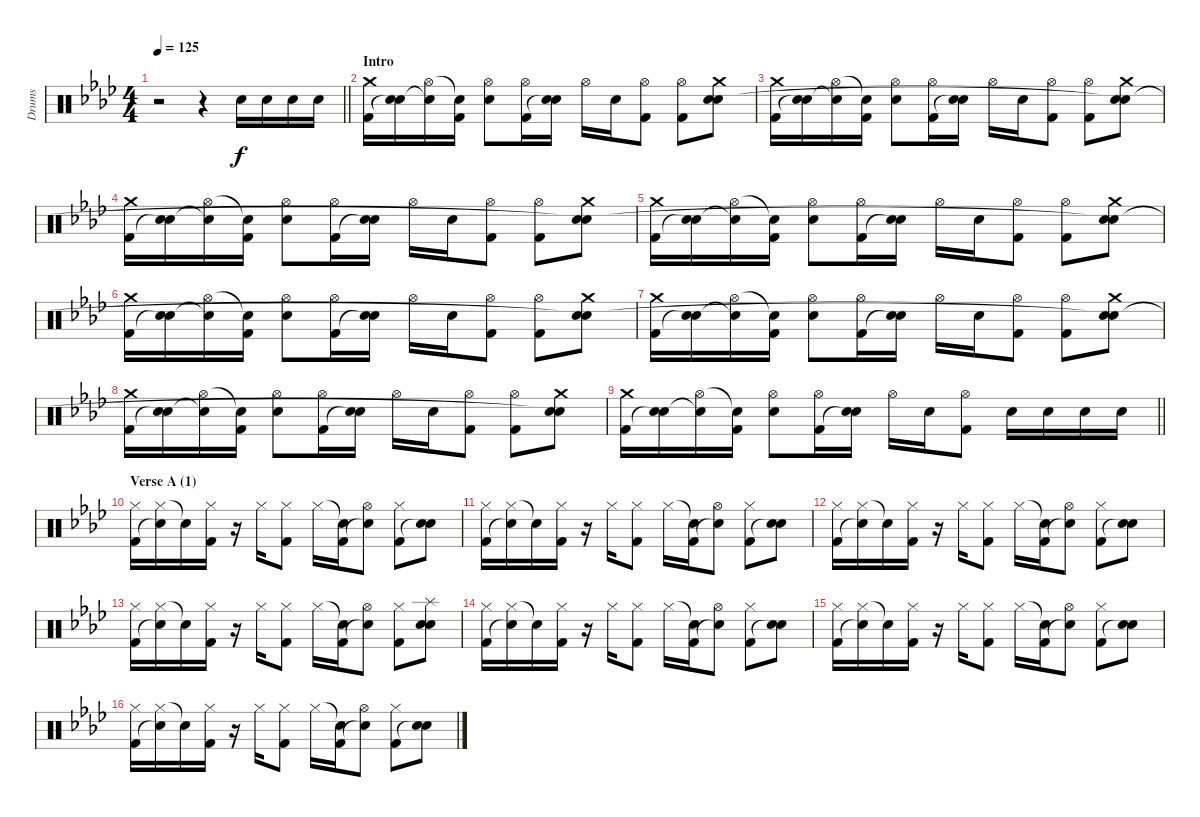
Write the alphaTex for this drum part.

\track ("Drums" "Drums") {instrument percussion}
\staff {score}
\articulation defaults
\ts (4 4)
\tempo 125
\clef neutral
\barLineRight lightlight
\ks ab
r.2{dy f} r.4 "Electric Snare (hit)".16 "Electric Snare (hit)".16 "Electric Snare (hit)".16 "Electric Snare (hit)".16 |
\section ("" "Intro")
("Crash medium (hit)" "Kick (hit) 2").16 ("Electric Snare (hit)" "Snare (hit)"{t}).16 ("Hi-Hat (open)" "Snare (hit)"{t}).16 ("Snare (hit)"{t} "Kick (hit) 2").16 ("Hi-Hat (open)" "Electric Snare (hit)").8 ("Hi-Hat (open)" "Kick (hit) 2").16 ("Electric Snare (hit)" "Snare (hit)"{t}).16 "Hi-Hat (open)".16 "Electric Snare (hit)".16 ("Hi-Hat (open)" "Kick (hit) 2").8 ("Hi-Hat (open)" "Kick (hit) 2").8 ("Crash medium (hit)" "Electric Snare (hit)" "Snare (hit)").8 |
("Crash medium (hit)" "Kick (hit) 2").16 ("Electric Snare (hit)" "Snare (hit)"{t}).16 ("Hi-Hat (open)" "Snare (hit)"{t}).16 ("Snare (hit)"{t} "Kick (hit) 2").16 ("Hi-Hat (open)" "Electric Snare (hit)").8 ("Hi-Hat (open)" "Kick (hit) 2").16 ("Electric Snare (hit)" "Snare (hit)"{t}).16 "Hi-Hat (open)".16 "Electric Snare (hit)".16 ("Hi-Hat (open)" "Kick (hit) 2").8 ("Hi-Hat (open)" "Kick (hit) 2").8 ("Crash medium (hit)" "Electric Snare (hit)" "Snare (hit)"{t}).8 |
("Crash medium (hit)" "Kick (hit) 2").16 ("Electric Snare (hit)" "Snare (hit)"{t}).16 ("Hi-Hat (open)" "Snare (hit)"{t}).16 ("Snare (hit)"{t} "Kick (hit) 2").16 ("Hi-Hat (open)" "Electric Snare (hit)").8 ("Hi-Hat (open)" "Kick (hit) 2").16 ("Electric Snare (hit)" "Snare (hit)"{t}).16 "Hi-Hat (open)".16 "Electric Snare (hit)".16 ("Hi-Hat (open)" "Kick (hit) 2").8 ("Hi-Hat (open)" "Kick (hit) 2").8 ("Crash medium (hit)" "Electric Snare (hit)" "Snare (hit)"{t}).8 |
("Crash medium (hit)" "Kick (hit) 2").16 ("Electric Snare (hit)" "Snare (hit)"{t}).16 ("Hi-Hat (open)" "Snare (hit)"{t}).16 ("Snare (hit)"{t} "Kick (hit) 2").16 ("Hi-Hat (open)" "Electric Snare (hit)").8 ("Hi-Hat (open)" "Kick (hit) 2").16 ("Electric Snare (hit)" "Snare (hit)"{t}).16 "Hi-Hat (open)".16 "Electric Snare (hit)".16 ("Hi-Hat (open)" "Kick (hit) 2").8 ("Hi-Hat (open)" "Kick (hit) 2").8 ("Crash medium (hit)" "Electric Snare (hit)" "Snare (hit)"{t}).8 |
("Crash medium (hit)" "Kick (hit) 2").16 ("Electric Snare (hit)" "Snare (hit)"{t}).16 ("Hi-Hat (open)" "Snare (hit)"{t}).16 ("Snare (hit)"{t} "Kick (hit) 2").16 ("Hi-Hat (open)" "Electric Snare (hit)").8 ("Hi-Hat (open)" "Kick (hit) 2").16 ("Electric Snare (hit)" "Snare (hit)"{t}).16 "Hi-Hat (open)".16 "Electric Snare (hit)".16 ("Hi-Hat (open)" "Kick (hit) 2").8 ("Hi-Hat (open)" "Kick (hit) 2").8 ("Crash medium (hit)" "Electric Snare (hit)" "Snare (hit)"{t}).8 |
("Crash medium (hit)" "Kick (hit) 2").16 ("Electric Snare (hit)" "Snare (hit)"{t}).16 ("Hi-Hat (open)" "Snare (hit)"{t}).16 ("Snare (hit)"{t} "Kick (hit) 2").16 ("Hi-Hat (open)" "Electric Snare (hit)").8 ("Hi-Hat (open)" "Kick (hit) 2").16 ("Electric Snare (hit)" "Snare (hit)"{t}).16 "Hi-Hat (open)".16 "Electric Snare (hit)".16 ("Hi-Hat (open)" "Kick (hit) 2").8 ("Hi-Hat (open)" "Kick (hit) 2").8 ("Crash medium (hit)" "Electric Snare (hit)" "Snare (hit)"{t}).8 |
("Crash medium (hit)" "Kick (hit) 2").16 ("Electric Snare (hit)" "Snare (hit)"{t}).16 ("Hi-Hat (open)" "Snare (hit)"{t}).16 ("Snare (hit)"{t} "Kick (hit) 2").16 ("Hi-Hat (open)" "Electric Snare (hit)").8 ("Hi-Hat (open)" "Kick (hit) 2").16 ("Electric Snare (hit)" "Snare (hit)"{t}).16 "Hi-Hat (open)".16 "Electric Snare (hit)".16 ("Hi-Hat (open)" "Kick (hit) 2").8 ("Hi-Hat (open)" "Kick (hit) 2").8 ("Crash medium (hit)" "Electric Snare (hit)" "Snare (hit)"{t}).8 |
\barLineRight lightlight
("Crash medium (hit)" "Kick (hit) 2").16 ("Electric Snare (hit)" "Snare (hit)"{t}).16 ("Hi-Hat (open)" "Snare (hit)"{t}).16 ("Snare (hit)"{t} "Kick (hit) 2").16 ("Hi-Hat (open)" "Electric Snare (hit)").8 ("Hi-Hat (open)" "Kick (hit) 2").16 ("Electric Snare (hit)" "Snare (hit)"{t}).16 "Hi-Hat (open)".16 "Electric Snare (hit)".16 ("Hi-Hat (open)" "Kick (hit) 2").8 "Electric Snare (hit)".16 "Electric Snare (hit)".16 "Electric Snare (hit)".16 "Electric Snare (hit)".16 |
\section ("" "Verse A (1)")
("Hi-Hat (closed)" "Kick (hit) 2").16 ("Hi-Hat (closed)" "Snare (hit)"{t}).16 "Snare (hit)"{t}.16 ("Hi-Hat (closed)" "Kick (hit) 2").16 r.16 "Hi-Hat (closed)".16 ("Hi-Hat (closed)" "Kick (hit) 2").8 "Hi-Hat (closed)".16 ("Snare (hit)"{t} "Kick (hit) 2").16 ("Hi-Hat (open)" "Snare (hit)"{t}).8 ("Hi-Hat (closed)" "Kick (hit) 2").8 ("Electric Snare (hit)" "Snare (hit)"{t}).8 |
("Hi-Hat (closed)" "Kick (hit) 2").16 ("Hi-Hat (closed)" "Snare (hit)"{t}).16 "Snare (hit)"{t}.16 ("Hi-Hat (closed)" "Kick (hit) 2").16 r.16 "Hi-Hat (closed)".16 ("Hi-Hat (closed)" "Kick (hit) 2").8 "Hi-Hat (closed)".16 ("Snare (hit)"{t} "Kick (hit) 2").16 ("Hi-Hat (open)" "Snare (hit)"{t}).8 ("Hi-Hat (closed)" "Kick (hit) 2").8 ("Electric Snare (hit)" "Snare (hit)"{t}).8 |
("Hi-Hat (closed)" "Kick (hit) 2").16 ("Hi-Hat (closed)" "Snare (hit)"{t}).16 "Snare (hit)"{t}.16 ("Hi-Hat (closed)" "Kick (hit) 2").16 r.16 "Hi-Hat (closed)".16 ("Hi-Hat (closed)" "Kick (hit) 2").8 "Hi-Hat (closed)".16 ("Snare (hit)"{t} "Kick (hit) 2").16 ("Hi-Hat (open)" "Snare (hit)"{t}).8 ("Hi-Hat (closed)" "Kick (hit) 2").8 ("Electric Snare (hit)" "Snare (hit)"{t}).8 |
("Hi-Hat (closed)" "Kick (hit) 2").16 ("Hi-Hat (closed)" "Snare (hit)"{t}).16 "Snare (hit)"{t}.16 ("Hi-Hat (closed)" "Kick (hit) 2").16 r.16 "Hi-Hat (closed)".16 ("Hi-Hat (closed)" "Kick (hit) 2").8 "Hi-Hat (closed)".16 ("Snare (hit)"{t} "Kick (hit) 2").16 ("Hi-Hat (open)" "Snare (hit)"{t}).8 ("Hi-Hat (closed)" "Kick (hit) 2").8 ("Splash (hit)" "Electric Snare (hit)" "Snare (hit)").8 |
("Hi-Hat (closed)" "Kick (hit) 2").16 ("Hi-Hat (closed)" "Snare (hit)"{t}).16 "Snare (hit)"{t}.16 ("Hi-Hat (closed)" "Kick (hit) 2").16 r.16 "Hi-Hat (closed)".16 ("Hi-Hat (closed)" "Kick (hit) 2").8 "Hi-Hat (closed)".16 ("Snare (hit)"{t} "Kick (hit) 2").16 ("Hi-Hat (open)" "Snare (hit)"{t}).8 ("Hi-Hat (closed)" "Kick (hit) 2").8 ("Electric Snare (hit)" "Snare (hit)"{t}).8 |
("Hi-Hat (closed)" "Kick (hit) 2").16 ("Hi-Hat (closed)" "Snare (hit)"{t}).16 "Snare (hit)"{t}.16 ("Hi-Hat (closed)" "Kick (hit) 2").16 r.16 "Hi-Hat (closed)".16 ("Hi-Hat (closed)" "Kick (hit) 2").8 "Hi-Hat (closed)".16 ("Snare (hit)"{t} "Kick (hit) 2").16 ("Hi-Hat (open)" "Snare (hit)"{t}).8 ("Hi-Hat (closed)" "Kick (hit) 2").8 ("Electric Snare (hit)" "Snare (hit)"{t}).8 |
("Hi-Hat (closed)" "Kick (hit) 2").16 ("Hi-Hat (closed)" "Snare (hit)"{t}).16 "Snare (hit)"{t}.16 ("Hi-Hat (closed)" "Kick (hit) 2").16 r.16 "Hi-Hat (closed)".16 ("Hi-Hat (closed)" "Kick (hit) 2").8 "Hi-Hat (closed)".16 ("Snare (hit)"{t} "Kick (hit) 2").16 ("Hi-Hat (open)" "Snare (hit)"{t}).8 ("Hi-Hat (closed)" "Kick (hit) 2").8 ("Electric Snare (hit)" "Snare (hit)"{t}).8
